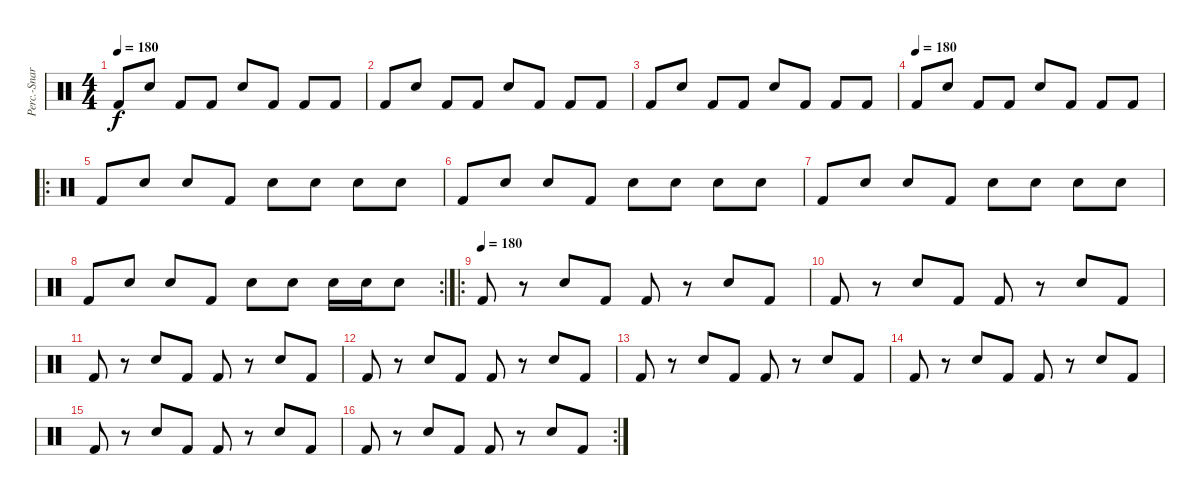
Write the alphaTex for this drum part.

\track ("Perc.-Snare/Kick" "Perc.-Snar") {instrument percussion}
\staff {score}
\articulation defaults
\ts (4 4)
\tempo 180
\clef neutral
\ks c "Kick (hit) 2".8{dy f} "Snare (hit) 2".8 "Kick (hit) 2".8 "Kick (hit) 2".8 "Snare (hit) 2".8 "Kick (hit) 2".8 "Kick (hit) 2".8 "Kick (hit) 2".8
|
"Kick (hit) 2".8 "Snare (hit) 2".8 "Kick (hit) 2".8 "Kick (hit) 2".8 "Snare (hit) 2".8 "Kick (hit) 2".8 "Kick (hit) 2".8 "Kick (hit) 2".8 |
"Kick (hit) 2".8 "Snare (hit) 2".8 "Kick (hit) 2".8 "Kick (hit) 2".8 "Snare (hit) 2".8 "Kick (hit) 2".8 "Kick (hit) 2".8 "Kick (hit) 2".8 |
\tempo (180)
"Kick (hit) 2".8 "Snare (hit) 2".8 "Kick (hit) 2".8 "Kick (hit) 2".8 "Snare (hit) 2".8 "Kick (hit) 2".8 "Kick (hit) 2".8 "Kick (hit) 2".8 |
\ro "Kick (hit) 2".8 "Snare (hit) 2".8 "Snare (hit) 2".8 "Kick (hit) 2".8 "Snare (hit) 2".8 "Snare (hit) 2".8 "Snare (hit) 2".8 "Snare (hit) 2".8
|
"Kick (hit) 2".8 "Snare (hit) 2".8 "Snare (hit) 2".8 "Kick (hit) 2".8 "Snare (hit) 2".8 "Snare (hit) 2".8 "Snare (hit) 2".8 "Snare (hit) 2".8 |
"Kick (hit) 2".8 "Snare (hit) 2".8 "Snare (hit) 2".8 "Kick (hit) 2".8 "Snare (hit) 2".8 "Snare (hit) 2".8 "Snare (hit) 2".8 "Snare (hit) 2".8 |
\rc 2 "Kick (hit) 2".8 "Snare (hit) 2".8 "Snare (hit) 2".8 "Kick (hit) 2".8 "Snare (hit) 2".8 "Snare (hit) 2".8 "Snare (hit) 2".16 "Snare (hit) 2".16 "Snare (hit) 2".8
|
\ro
\tempo (180)
"Kick (hit) 2".8 r.8 "Snare (hit) 2".8 "Kick (hit) 2".8 "Kick (hit) 2".8 r.8 "Snare (hit) 2".8 "Kick (hit) 2".8 |
"Kick (hit) 2".8 r.8 "Snare (hit) 2".8 "Kick (hit) 2".8 "Kick (hit) 2".8 r.8 "Snare (hit) 2".8 "Kick (hit) 2".8 |
"Kick (hit) 2".8 r.8 "Snare (hit) 2".8 "Kick (hit) 2".8 "Kick (hit) 2".8 r.8 "Snare (hit) 2".8 "Kick (hit) 2".8 |
"Kick (hit) 2".8 r.8 "Snare (hit) 2".8 "Kick (hit) 2".8 "Kick (hit) 2".8 r.8 "Snare (hit) 2".8 "Kick (hit) 2".8 |
"Kick (hit) 2".8 r.8 "Snare (hit) 2".8 "Kick (hit) 2".8 "Kick (hit) 2".8 r.8 "Snare (hit) 2".8 "Kick (hit) 2".8 |
"Kick (hit) 2".8 r.8 "Snare (hit) 2".8 "Kick (hit) 2".8 "Kick (hit) 2".8 r.8 "Snare (hit) 2".8 "Kick (hit) 2".8 |
"Kick (hit) 2".8 r.8 "Snare (hit) 2".8 "Kick (hit) 2".8 "Kick (hit) 2".8 r.8 "Snare (hit) 2".8 "Kick (hit) 2".8 |
\rc 2 "Kick (hit) 2".8
r.8 "Snare (hit) 2".8 "Kick (hit) 2".8 "Kick (hit) 2".8 r.8 "Snare (hit) 2".8 "Kick (hit) 2".8
